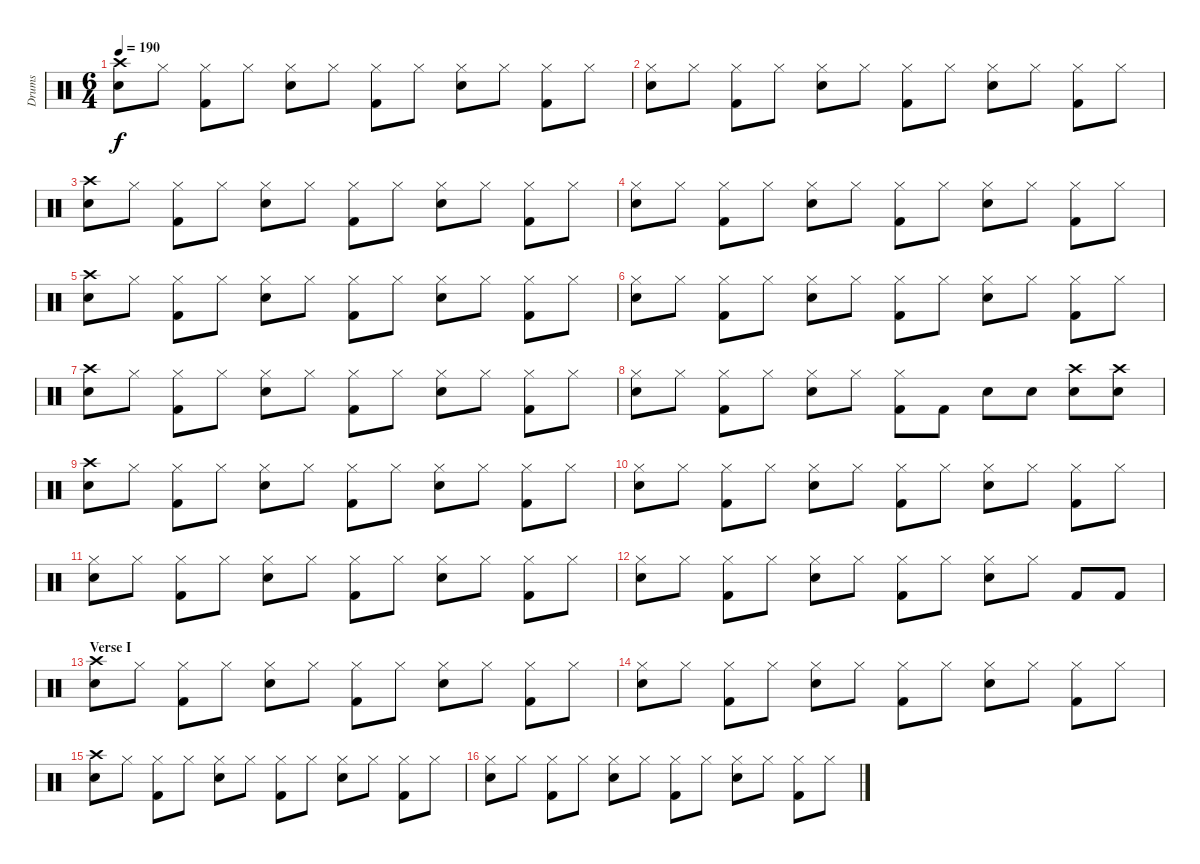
\track ("Drums" "Drums") {instrument percussion}
\staff {score}
\articulation defaults
\ts (6 4)
\tempo 190
\clef neutral
\ks c
("Crash high (hit)" "Snare (hit) 2").8{dy f} "Hi-Hat (closed)".8 ("Hi-Hat (closed)" "Kick (hit) 2").8 "Hi-Hat (closed)".8 ("Hi-Hat (closed)" "Snare (hit) 2").8 "Hi-Hat (closed)".8 ("Hi-Hat (closed)" "Kick (hit) 2").8 "Hi-Hat (closed)".8 ("Hi-Hat (closed)" "Snare (hit) 2").8 "Hi-Hat (closed)".8 ("Hi-Hat (closed)" "Kick (hit) 2").8 "Hi-Hat (closed)".8 |
("Hi-Hat (closed)" "Snare (hit) 2").8 "Hi-Hat (closed)".8 ("Hi-Hat (closed)" "Kick (hit) 2").8 "Hi-Hat (closed)".8 ("Hi-Hat (closed)" "Snare (hit) 2").8 "Hi-Hat (closed)".8 ("Hi-Hat (closed)" "Kick (hit) 2").8 "Hi-Hat (closed)".8 ("Hi-Hat (closed)" "Snare (hit) 2").8 "Hi-Hat (closed)".8 ("Hi-Hat (closed)" "Kick (hit) 2").8 "Hi-Hat (closed)".8 |
("Crash high (hit)" "Snare (hit) 2").8 "Hi-Hat (closed)".8 ("Hi-Hat (closed)" "Kick (hit) 2").8 "Hi-Hat (closed)".8 ("Hi-Hat (closed)" "Snare (hit) 2").8 "Hi-Hat (closed)".8 ("Hi-Hat (closed)" "Kick (hit) 2").8 "Hi-Hat (closed)".8 ("Hi-Hat (closed)" "Snare (hit) 2").8 "Hi-Hat (closed)".8 ("Hi-Hat (closed)" "Kick (hit) 2").8 "Hi-Hat (closed)".8 |
("Hi-Hat (closed)" "Snare (hit) 2").8 "Hi-Hat (closed)".8 ("Hi-Hat (closed)" "Kick (hit) 2").8 "Hi-Hat (closed)".8 ("Hi-Hat (closed)" "Snare (hit) 2").8 "Hi-Hat (closed)".8 ("Hi-Hat (closed)" "Kick (hit) 2").8 "Hi-Hat (closed)".8 ("Hi-Hat (closed)" "Snare (hit) 2").8 "Hi-Hat (closed)".8 ("Hi-Hat (closed)" "Kick (hit) 2").8 "Hi-Hat (closed)".8 |
("Crash high (hit)" "Snare (hit) 2").8 "Hi-Hat (closed)".8 ("Hi-Hat (closed)" "Kick (hit) 2").8 "Hi-Hat (closed)".8 ("Hi-Hat (closed)" "Snare (hit) 2").8 "Hi-Hat (closed)".8 ("Hi-Hat (closed)" "Kick (hit) 2").8 "Hi-Hat (closed)".8 ("Hi-Hat (closed)" "Snare (hit) 2").8 "Hi-Hat (closed)".8 ("Hi-Hat (closed)" "Kick (hit) 2").8 "Hi-Hat (closed)".8 |
("Hi-Hat (closed)" "Snare (hit) 2").8 "Hi-Hat (closed)".8 ("Hi-Hat (closed)" "Kick (hit) 2").8 "Hi-Hat (closed)".8 ("Hi-Hat (closed)" "Snare (hit) 2").8 "Hi-Hat (closed)".8 ("Hi-Hat (closed)" "Kick (hit) 2").8 "Hi-Hat (closed)".8 ("Hi-Hat (closed)" "Snare (hit) 2").8 "Hi-Hat (closed)".8 ("Hi-Hat (closed)" "Kick (hit) 2").8 "Hi-Hat (closed)".8 |
("Crash high (hit)" "Snare (hit) 2").8 "Hi-Hat (closed)".8 ("Hi-Hat (closed)" "Kick (hit) 2").8 "Hi-Hat (closed)".8 ("Hi-Hat (closed)" "Snare (hit) 2").8 "Hi-Hat (closed)".8 ("Hi-Hat (closed)" "Kick (hit) 2").8 "Hi-Hat (closed)".8 ("Hi-Hat (closed)" "Snare (hit) 2").8 "Hi-Hat (closed)".8 ("Hi-Hat (closed)" "Kick (hit) 2").8 "Hi-Hat (closed)".8 |
("Hi-Hat (closed)" "Snare (hit) 2").8 "Hi-Hat (closed)".8 ("Hi-Hat (closed)" "Kick (hit) 2").8 "Hi-Hat (closed)".8 ("Hi-Hat (closed)" "Snare (hit) 2").8 "Hi-Hat (closed)".8 ("Hi-Hat (closed)" "Kick (hit) 2").8 "Kick (hit) 2".8 "Snare (hit) 2".8 "Snare (hit) 2".8 ("Crash high (hit)" "Electric Snare (hit)").8 ("Crash high (hit)" "Electric Snare (hit)").8 |
("Crash high (hit)" "Snare (hit) 2").8 "Hi-Hat (closed)".8 ("Hi-Hat (closed)" "Kick (hit) 2").8 "Hi-Hat (closed)".8 ("Hi-Hat (closed)" "Snare (hit) 2").8 "Hi-Hat (closed)".8 ("Hi-Hat (closed)" "Kick (hit) 2").8 "Hi-Hat (closed)".8 ("Hi-Hat (closed)" "Snare (hit) 2").8 "Hi-Hat (closed)".8 ("Hi-Hat (closed)" "Kick (hit) 2").8 "Hi-Hat (closed)".8 |
("Hi-Hat (closed)" "Snare (hit) 2").8 "Hi-Hat (closed)".8 ("Hi-Hat (closed)" "Kick (hit) 2").8 "Hi-Hat (closed)".8 ("Hi-Hat (closed)" "Snare (hit) 2").8 "Hi-Hat (closed)".8 ("Hi-Hat (closed)" "Kick (hit) 2").8 "Hi-Hat (closed)".8 ("Hi-Hat (closed)" "Snare (hit) 2").8 "Hi-Hat (closed)".8 ("Hi-Hat (closed)" "Kick (hit) 2").8 "Hi-Hat (closed)".8 |
("Hi-Hat (closed)" "Snare (hit) 2").8 "Hi-Hat (closed)".8 ("Hi-Hat (closed)" "Kick (hit) 2").8 "Hi-Hat (closed)".8 ("Hi-Hat (closed)" "Snare (hit) 2").8 "Hi-Hat (closed)".8 ("Hi-Hat (closed)" "Kick (hit) 2").8 "Hi-Hat (closed)".8 ("Hi-Hat (closed)" "Snare (hit) 2").8 "Hi-Hat (closed)".8 ("Hi-Hat (closed)" "Kick (hit) 2").8 "Hi-Hat (closed)".8 |
("Hi-Hat (closed)" "Snare (hit) 2").8 "Hi-Hat (closed)".8 ("Hi-Hat (closed)" "Kick (hit) 2").8 "Hi-Hat (closed)".8 ("Hi-Hat (closed)" "Snare (hit) 2").8 "Hi-Hat (closed)".8 ("Hi-Hat (closed)" "Kick (hit) 2").8 "Hi-Hat (closed)".8 ("Hi-Hat (closed)" "Snare (hit) 2").8 "Hi-Hat (closed)".8 "Kick (hit) 2".8 "Kick (hit) 2".8 |
\section ("" "Verse I")
("Crash high (hit)" "Snare (hit) 2").8 "Hi-Hat (closed)".8 ("Hi-Hat (closed)" "Kick (hit) 2").8 "Hi-Hat (closed)".8 ("Hi-Hat (closed)" "Snare (hit) 2").8 "Hi-Hat (closed)".8 ("Hi-Hat (closed)" "Kick (hit) 2").8 "Hi-Hat (closed)".8 ("Hi-Hat (closed)" "Snare (hit) 2").8 "Hi-Hat (closed)".8 ("Hi-Hat (closed)" "Kick (hit) 2").8 "Hi-Hat (closed)".8 |
("Hi-Hat (closed)" "Snare (hit) 2").8 "Hi-Hat (closed)".8 ("Hi-Hat (closed)" "Kick (hit) 2").8 "Hi-Hat (closed)".8 ("Hi-Hat (closed)" "Snare (hit) 2").8 "Hi-Hat (closed)".8 ("Hi-Hat (closed)" "Kick (hit) 2").8 "Hi-Hat (closed)".8 ("Hi-Hat (closed)" "Snare (hit) 2").8 "Hi-Hat (closed)".8 ("Hi-Hat (closed)" "Kick (hit) 2").8 "Hi-Hat (closed)".8 |
("Crash high (hit)" "Snare (hit) 2").8 "Hi-Hat (closed)".8 ("Hi-Hat (closed)" "Kick (hit) 2").8 "Hi-Hat (closed)".8 ("Hi-Hat (closed)" "Snare (hit) 2").8 "Hi-Hat (closed)".8 ("Hi-Hat (closed)" "Kick (hit) 2").8 "Hi-Hat (closed)".8 ("Hi-Hat (closed)" "Snare (hit) 2").8 "Hi-Hat (closed)".8 ("Hi-Hat (closed)" "Kick (hit) 2").8 "Hi-Hat (closed)".8 |
("Hi-Hat (closed)" "Snare (hit) 2").8 "Hi-Hat (closed)".8 ("Hi-Hat (closed)" "Kick (hit) 2").8 "Hi-Hat (closed)".8 ("Hi-Hat (closed)" "Snare (hit) 2").8 "Hi-Hat (closed)".8 ("Hi-Hat (closed)" "Kick (hit) 2").8 "Hi-Hat (closed)".8 ("Hi-Hat (closed)" "Snare (hit) 2").8 "Hi-Hat (closed)".8 ("Hi-Hat (closed)" "Kick (hit) 2").8 "Hi-Hat (closed)".8
